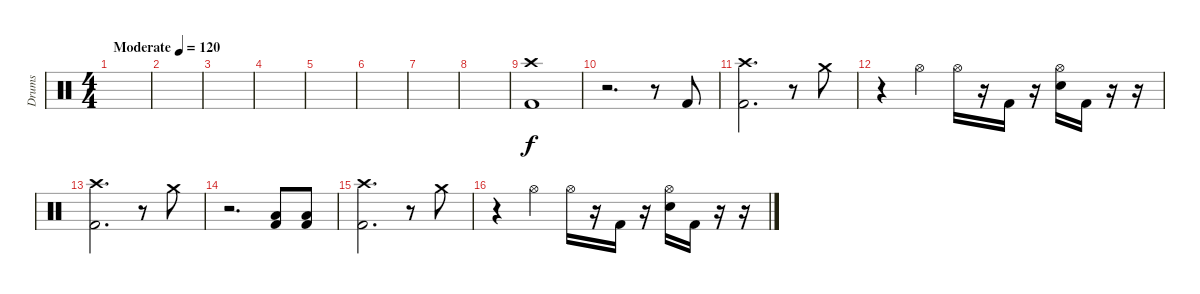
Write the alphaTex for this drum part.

\track ("Drums" "Drums") {instrument percussion}
\staff
\articulation defaults
\ts (4 4)
\tempo (120 "Moderate")
\clef neutral
\ks c
|
|
|
|
|
|
|
|
("Crash high (hit)" "Kick (hit) 2").1 |
r.2{d} r.8 "Kick (hit) 2".8 |
("Crash high (hit)" "Kick (hit) 2").2{d} r.8 "Crash medium (hit)".8 |
r.4 "Hi-Hat (open)".4 "Hi-Hat (open)".16 r.16 "Kick (hit) 2".16 r.16 ("Hi-Hat (open)" "Electric Snare (hit)").16 "Kick (hit) 2".16 r.16 r.16 |
("Crash high (hit)" "Kick (hit) 2").2{d} r.8 "Crash medium (hit)".8 |
r.2{d} ("Low Floor Tom (hit)" "Kick (hit) 2").8 ("Low Floor Tom (hit)" "Kick (hit) 2").8 |
("Crash high (hit)" "Kick (hit) 2").2{d} r.8 "Crash medium (hit)".8 |
r.4 "Hi-Hat (open)".4 "Hi-Hat (open)".16 r.16 "Kick (hit) 2".16 r.16 ("Hi-Hat (open)" "Electric Snare (hit)").16 "Kick (hit) 2".16 r.16 r.16
